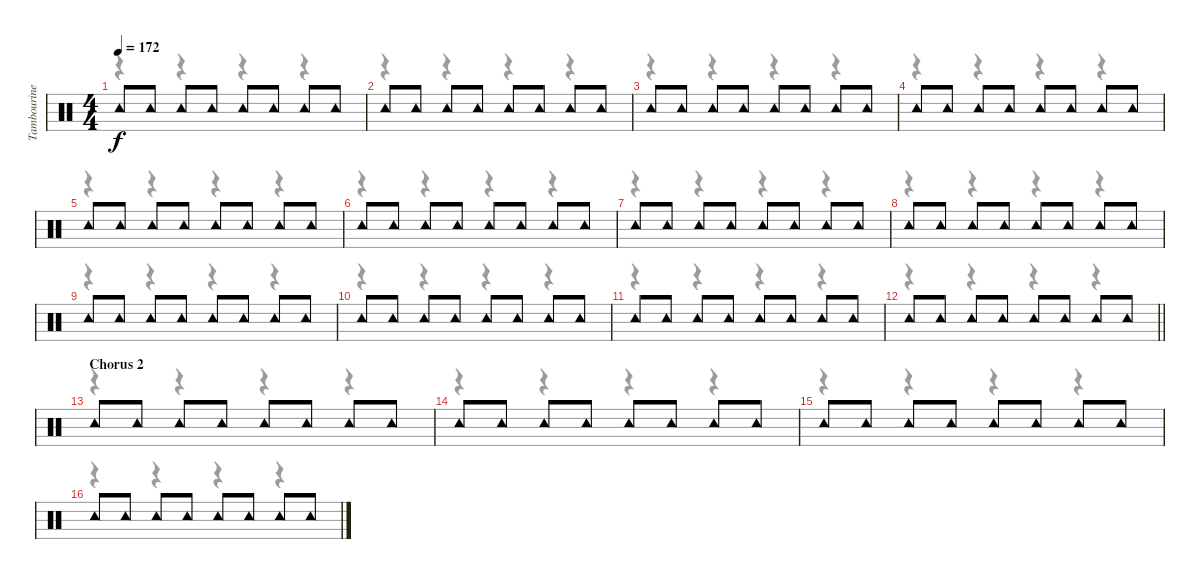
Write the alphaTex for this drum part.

\track ("Tambourine" "Tambourine") {instrument percussion}
\staff {score}
\articulation defaults
\voice
\ts (4 4)
\tempo 172
\clef neutral
\ks c "Tambourine (hit)".8{dy f} "Tambourine (hit)".8 "Tambourine (hit)".8 "Tambourine (hit)".8 "Tambourine (hit)".8 "Tambourine (hit)".8 "Tambourine (hit)".8 "Tambourine (hit)".8
|
"Tambourine (hit)".8 "Tambourine (hit)".8 "Tambourine (hit)".8 "Tambourine (hit)".8 "Tambourine (hit)".8 "Tambourine (hit)".8 "Tambourine (hit)".8 "Tambourine (hit)".8 |
"Tambourine (hit)".8 "Tambourine (hit)".8 "Tambourine (hit)".8 "Tambourine (hit)".8 "Tambourine (hit)".8 "Tambourine (hit)".8 "Tambourine (hit)".8 "Tambourine (hit)".8 |
"Tambourine (hit)".8 "Tambourine (hit)".8 "Tambourine (hit)".8 "Tambourine (hit)".8 "Tambourine (hit)".8 "Tambourine (hit)".8 "Tambourine (hit)".8 "Tambourine (hit)".8 |
"Tambourine (hit)".8 "Tambourine (hit)".8 "Tambourine (hit)".8 "Tambourine (hit)".8 "Tambourine (hit)".8 "Tambourine (hit)".8 "Tambourine (hit)".8 "Tambourine (hit)".8 |
"Tambourine (hit)".8 "Tambourine (hit)".8 "Tambourine (hit)".8 "Tambourine (hit)".8 "Tambourine (hit)".8 "Tambourine (hit)".8 "Tambourine (hit)".8 "Tambourine (hit)".8 |
"Tambourine (hit)".8 "Tambourine (hit)".8 "Tambourine (hit)".8 "Tambourine (hit)".8 "Tambourine (hit)".8 "Tambourine (hit)".8 "Tambourine (hit)".8 "Tambourine (hit)".8 |
"Tambourine (hit)".8 "Tambourine (hit)".8 "Tambourine (hit)".8 "Tambourine (hit)".8 "Tambourine (hit)".8 "Tambourine (hit)".8 "Tambourine (hit)".8 "Tambourine (hit)".8 |
"Tambourine (hit)".8 "Tambourine (hit)".8 "Tambourine (hit)".8 "Tambourine (hit)".8 "Tambourine (hit)".8 "Tambourine (hit)".8 "Tambourine (hit)".8 "Tambourine (hit)".8 |
"Tambourine (hit)".8 "Tambourine (hit)".8 "Tambourine (hit)".8 "Tambourine (hit)".8 "Tambourine (hit)".8 "Tambourine (hit)".8 "Tambourine (hit)".8 "Tambourine (hit)".8 |
"Tambourine (hit)".8 "Tambourine (hit)".8 "Tambourine (hit)".8 "Tambourine (hit)".8 "Tambourine (hit)".8 "Tambourine (hit)".8 "Tambourine (hit)".8 "Tambourine (hit)".8 |
\barLineRight lightlight "Tambourine (hit)".8 "Tambourine (hit)".8 "Tambourine (hit)".8 "Tambourine (hit)".8 "Tambourine (hit)".8 "Tambourine (hit)".8 "Tambourine (hit)".8 "Tambourine (hit)".8
|
\section ("" "Chorus 2")
"Tambourine (hit)".8 "Tambourine (hit)".8 "Tambourine (hit)".8 "Tambourine (hit)".8 "Tambourine (hit)".8 "Tambourine (hit)".8 "Tambourine (hit)".8 "Tambourine (hit)".8 |
"Tambourine (hit)".8 "Tambourine (hit)".8 "Tambourine (hit)".8 "Tambourine (hit)".8 "Tambourine (hit)".8 "Tambourine (hit)".8 "Tambourine (hit)".8 "Tambourine (hit)".8 |
"Tambourine (hit)".8 "Tambourine (hit)".8 "Tambourine (hit)".8 "Tambourine (hit)".8 "Tambourine (hit)".8 "Tambourine (hit)".8 "Tambourine (hit)".8 "Tambourine (hit)".8 |
"Tambourine (hit)".8 "Tambourine (hit)".8 "Tambourine (hit)".8 "Tambourine (hit)".8 "Tambourine (hit)".8 "Tambourine (hit)".8 "Tambourine (hit)".8 "Tambourine (hit)".8
\voice
\clef neutral
\ottava regular
\simile none
\ks c
r.4{dy f} r.4 r.4 r.4 |
r.4 r.4 r.4 r.4 |
r.4 r.4 r.4 r.4 |
r.4 r.4 r.4 r.4 |
r.4 r.4 r.4 r.4 |
r.4 r.4 r.4 r.4 |
r.4 r.4 r.4 r.4 |
r.4 r.4 r.4 r.4 |
r.4 r.4 r.4 r.4 |
r.4 r.4 r.4 r.4 |
r.4 r.4 r.4 r.4 |
\barLineRight lightlight
r.4 r.4 r.4 r.4 |
r.4 r.4 r.4 r.4 |
r.4 r.4 r.4 r.4 |
r.4 r.4 r.4 r.4 |
r.4 r.4 r.4 r.4
